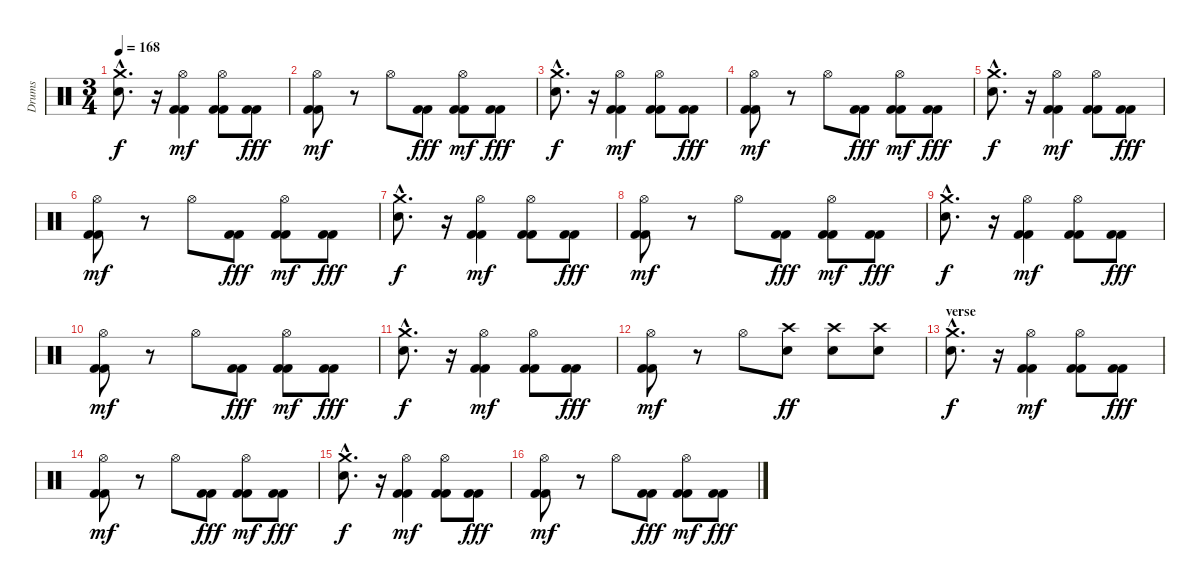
\track ("Drums" "Drums") {instrument percussion}
\staff {score}
\articulation defaults
\ts (3 4)
\tempo 168
\clef neutral
\ks c
("Crash medium (hit)"{hac} "Electric Snare (hit)"{hac}).8{d dy f} r.16 ("Kick (hit) 2" "Kick (hit) 2" "Hi-Hat (open)").4{dy mf} ("Kick (hit) 2" "Kick (hit) 2" "Hi-Hat (open)").8 ("Kick (hit) 2" "Kick (hit) 2").8{dy fff} |
("Kick (hit) 2" "Kick (hit) 2" "Hi-Hat (open)").8{dy mf} r.8 "Hi-Hat (open)".8 ("Kick (hit) 2" "Kick (hit) 2").8{dy fff} ("Kick (hit) 2" "Kick (hit) 2" "Hi-Hat (open)").8{dy mf} ("Kick (hit) 2" "Kick (hit) 2").8{dy fff} |
("Crash medium (hit)"{hac} "Electric Snare (hit)"{hac}).8{d dy f} r.16 ("Kick (hit) 2" "Kick (hit) 2" "Hi-Hat (open)").4{dy mf} ("Kick (hit) 2" "Kick (hit) 2" "Hi-Hat (open)").8 ("Kick (hit) 2" "Kick (hit) 2").8{dy fff} |
("Kick (hit) 2" "Kick (hit) 2" "Hi-Hat (open)").8{dy mf} r.8 "Hi-Hat (open)".8 ("Kick (hit) 2" "Kick (hit) 2").8{dy fff} ("Kick (hit) 2" "Kick (hit) 2" "Hi-Hat (open)").8{dy mf} ("Kick (hit) 2" "Kick (hit) 2").8{dy fff} |
("Crash medium (hit)"{hac} "Electric Snare (hit)"{hac}).8{d dy f} r.16 ("Kick (hit) 2" "Kick (hit) 2" "Hi-Hat (open)").4{dy mf} ("Kick (hit) 2" "Kick (hit) 2" "Hi-Hat (open)").8 ("Kick (hit) 2" "Kick (hit) 2").8{dy fff} |
("Kick (hit) 2" "Kick (hit) 2" "Hi-Hat (open)").8{dy mf} r.8 "Hi-Hat (open)".8 ("Kick (hit) 2" "Kick (hit) 2").8{dy fff} ("Kick (hit) 2" "Kick (hit) 2" "Hi-Hat (open)").8{dy mf} ("Kick (hit) 2" "Kick (hit) 2").8{dy fff} |
("Crash medium (hit)"{hac} "Electric Snare (hit)"{hac}).8{d dy f} r.16 ("Kick (hit) 2" "Kick (hit) 2" "Hi-Hat (open)").4{dy mf} ("Kick (hit) 2" "Kick (hit) 2" "Hi-Hat (open)").8 ("Kick (hit) 2" "Kick (hit) 2").8{dy fff} |
("Kick (hit) 2" "Kick (hit) 2" "Hi-Hat (open)").8{dy mf} r.8 "Hi-Hat (open)".8 ("Kick (hit) 2" "Kick (hit) 2").8{dy fff} ("Kick (hit) 2" "Kick (hit) 2" "Hi-Hat (open)").8{dy mf} ("Kick (hit) 2" "Kick (hit) 2").8{dy fff} |
("Crash medium (hit)"{hac} "Electric Snare (hit)"{hac}).8{d dy f} r.16 ("Kick (hit) 2" "Kick (hit) 2" "Hi-Hat (open)").4{dy mf} ("Kick (hit) 2" "Kick (hit) 2" "Hi-Hat (open)").8 ("Kick (hit) 2" "Kick (hit) 2").8{dy fff} |
("Kick (hit) 2" "Kick (hit) 2" "Hi-Hat (open)").8{dy mf} r.8 "Hi-Hat (open)".8 ("Kick (hit) 2" "Kick (hit) 2").8{dy fff} ("Kick (hit) 2" "Kick (hit) 2" "Hi-Hat (open)").8{dy mf} ("Kick (hit) 2" "Kick (hit) 2").8{dy fff} |
("Crash medium (hit)"{hac} "Electric Snare (hit)"{hac}).8{d dy f} r.16 ("Kick (hit) 2" "Kick (hit) 2" "Hi-Hat (open)").4{dy mf} ("Kick (hit) 2" "Kick (hit) 2" "Hi-Hat (open)").8 ("Kick (hit) 2" "Kick (hit) 2").8{dy fff} |
("Kick (hit) 2" "Kick (hit) 2" "Hi-Hat (open)").8{dy mf} r.8 "Hi-Hat (open)".8 ("Crash high (hit)" "Electric Snare (hit)").8{dy ff} ("Crash high (hit)" "Electric Snare (hit)").8 ("Crash high (hit)" "Electric Snare (hit)").8 |
\section ("" "verse")
("Crash medium (hit)"{hac} "Electric Snare (hit)"{hac}).8{d dy f} r.16 ("Kick (hit) 2" "Kick (hit) 2" "Hi-Hat (open)").4{dy mf} ("Kick (hit) 2" "Kick (hit) 2" "Hi-Hat (open)").8 ("Kick (hit) 2" "Kick (hit) 2").8{dy fff} |
("Kick (hit) 2" "Kick (hit) 2" "Hi-Hat (open)").8{dy mf} r.8 "Hi-Hat (open)".8 ("Kick (hit) 2" "Kick (hit) 2").8{dy fff} ("Kick (hit) 2" "Kick (hit) 2" "Hi-Hat (open)").8{dy mf} ("Kick (hit) 2" "Kick (hit) 2").8{dy fff} |
("Crash medium (hit)"{hac} "Electric Snare (hit)"{hac}).8{d dy f} r.16 ("Kick (hit) 2" "Kick (hit) 2" "Hi-Hat (open)").4{dy mf} ("Kick (hit) 2" "Kick (hit) 2" "Hi-Hat (open)").8 ("Kick (hit) 2" "Kick (hit) 2").8{dy fff} |
("Kick (hit) 2" "Kick (hit) 2" "Hi-Hat (open)").8{dy mf} r.8 "Hi-Hat (open)".8 ("Kick (hit) 2" "Kick (hit) 2").8{dy fff} ("Kick (hit) 2" "Kick (hit) 2" "Hi-Hat (open)").8{dy mf} ("Kick (hit) 2" "Kick (hit) 2").8{dy fff}
